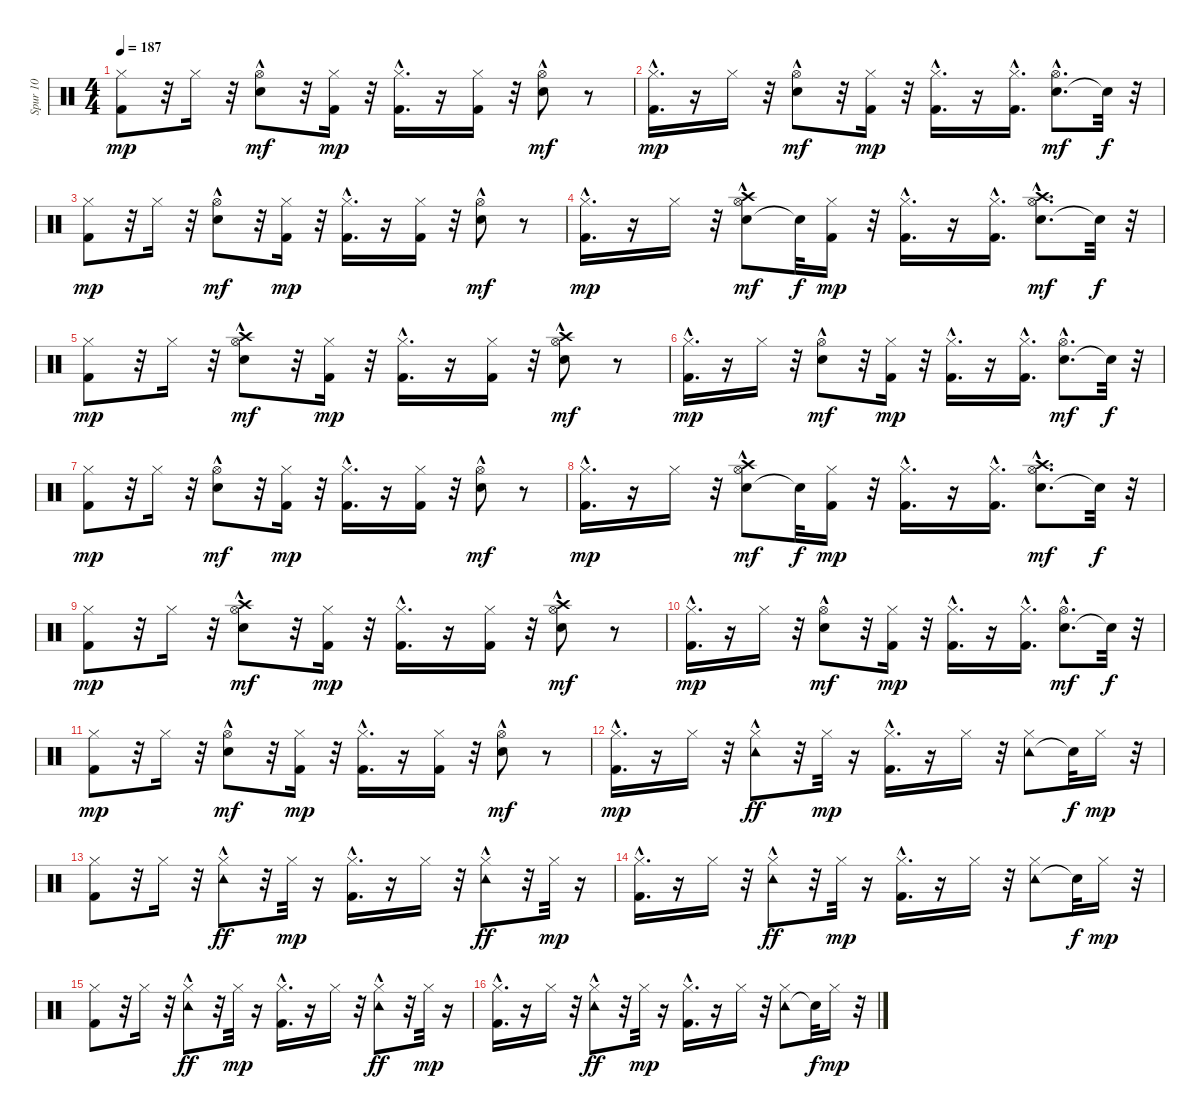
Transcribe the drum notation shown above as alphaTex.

\track ("Spur 10" "Spur 10") {instrument percussion}
\staff {score}
\articulation defaults
\ts (4 4)
\tempo 187
\clef neutral
\ks c
("Kick (hit) 2" "Hi-Hat (closed)").8{dy mp} r.32 "Hi-Hat (closed)".16 r.32 ("Electric Snare (hit)"{hac} "Hi-Hat (open)").8{dy mf} r.32 ("Kick (hit) 2" "Hi-Hat (closed)").16{dy mp} r.32 ("Kick (hit) 2"{hac} "Hi-Hat (closed)").16{d} r.16 ("Kick (hit) 2" "Hi-Hat (closed)").16 r.32 ("Electric Snare (hit)"{hac} "Hi-Hat (open)").8{dy mf} r.8 |
("Kick (hit) 2"{hac} "Hi-Hat (closed)").16{d dy mp} r.16 "Hi-Hat (closed)".16 r.32 ("Electric Snare (hit)"{hac} "Hi-Hat (open)").8{dy mf} r.32 ("Kick (hit) 2" "Hi-Hat (closed)").16{dy mp} r.32 ("Kick (hit) 2"{hac} "Hi-Hat (closed)").16{d} r.16 ("Kick (hit) 2"{hac} "Hi-Hat (closed)").16{d} ("Electric Snare (hit)" "Hi-Hat (open)"{hac}).8{d dy mf} "Snare (hit)"{t}.32{dy f} r.32 |
("Kick (hit) 2" "Hi-Hat (closed)").8{dy mp} r.32 "Hi-Hat (closed)".16 r.32 ("Electric Snare (hit)"{hac} "Hi-Hat (open)").8{dy mf} r.32 ("Kick (hit) 2" "Hi-Hat (closed)").16{dy mp} r.32 ("Kick (hit) 2"{hac} "Hi-Hat (closed)").16{d} r.16 ("Kick (hit) 2" "Hi-Hat (closed)").16 r.32 ("Electric Snare (hit)"{hac} "Hi-Hat (open)").8{dy mf} r.8 |
("Kick (hit) 2"{hac} "Hi-Hat (closed)").16{d dy mp} r.16 "Hi-Hat (closed)".16 r.32 ("Electric Snare (hit)"{hac} "Hi-Hat (open)" "Crash high (hit)").8{dy mf} "Snare (hit)"{t}.32{dy f} ("Kick (hit) 2" "Hi-Hat (closed)").16{dy mp} r.32 ("Kick (hit) 2"{hac} "Hi-Hat (closed)").16{d} r.16 ("Kick (hit) 2"{hac} "Hi-Hat (closed)").16{d} ("Electric Snare (hit)" "Hi-Hat (open)"{hac} "Crash high (hit)").8{d dy mf} "Snare (hit)"{t}.32{dy f} r.32 |
("Kick (hit) 2" "Hi-Hat (closed)").8{dy mp} r.32 "Hi-Hat (closed)".16 r.32 ("Electric Snare (hit)"{hac} "Hi-Hat (open)" "Crash high (hit)").8{dy mf} r.32 ("Kick (hit) 2" "Hi-Hat (closed)").16{dy mp} r.32 ("Kick (hit) 2"{hac} "Hi-Hat (closed)").16{d} r.16 ("Kick (hit) 2" "Hi-Hat (closed)").16 r.32 ("Electric Snare (hit)"{hac} "Hi-Hat (open)" "Crash high (hit)").8{dy mf} r.8 |
("Kick (hit) 2"{hac} "Hi-Hat (closed)").16{d dy mp} r.16 "Hi-Hat (closed)".16 r.32 ("Electric Snare (hit)"{hac} "Hi-Hat (open)").8{dy mf} r.32 ("Kick (hit) 2" "Hi-Hat (closed)").16{dy mp} r.32 ("Kick (hit) 2"{hac} "Hi-Hat (closed)").16{d} r.16 ("Kick (hit) 2"{hac} "Hi-Hat (closed)").16{d} ("Electric Snare (hit)" "Hi-Hat (open)"{hac}).8{d dy mf} "Snare (hit)"{t}.32{dy f} r.32 |
("Kick (hit) 2" "Hi-Hat (closed)").8{dy mp} r.32 "Hi-Hat (closed)".16 r.32 ("Electric Snare (hit)"{hac} "Hi-Hat (open)").8{dy mf} r.32 ("Kick (hit) 2" "Hi-Hat (closed)").16{dy mp} r.32 ("Kick (hit) 2"{hac} "Hi-Hat (closed)").16{d} r.16 ("Kick (hit) 2" "Hi-Hat (closed)").16 r.32 ("Electric Snare (hit)"{hac} "Hi-Hat (open)").8{dy mf} r.8 |
("Kick (hit) 2"{hac} "Hi-Hat (closed)").16{d dy mp} r.16 "Hi-Hat (closed)".16 r.32 ("Electric Snare (hit)"{hac} "Hi-Hat (open)" "Crash high (hit)").8{dy mf} "Snare (hit)"{t}.32{dy f} ("Kick (hit) 2" "Hi-Hat (closed)").16{dy mp} r.32 ("Kick (hit) 2"{hac} "Hi-Hat (closed)").16{d} r.16 ("Kick (hit) 2"{hac} "Hi-Hat (closed)").16{d} ("Electric Snare (hit)" "Hi-Hat (open)"{hac} "Crash high (hit)").8{d dy mf} "Snare (hit)"{t}.32{dy f} r.32 |
("Kick (hit) 2" "Hi-Hat (closed)").8{dy mp} r.32 "Hi-Hat (closed)".16 r.32 ("Electric Snare (hit)"{hac} "Hi-Hat (open)" "Crash high (hit)"{hac}).8{dy mf} r.32 ("Kick (hit) 2" "Hi-Hat (closed)").16{dy mp} r.32 ("Kick (hit) 2"{hac} "Hi-Hat (closed)").16{d} r.16 ("Kick (hit) 2" "Hi-Hat (closed)").16 r.32 ("Electric Snare (hit)"{hac} "Hi-Hat (open)" "Crash high (hit)"{hac}).8{dy mf} r.8 |
("Kick (hit) 2"{hac} "Hi-Hat (closed)").16{d dy mp} r.16 "Hi-Hat (closed)".16 r.32 ("Electric Snare (hit)"{hac} "Hi-Hat (open)").8{dy mf} r.32 ("Kick (hit) 2" "Hi-Hat (closed)").16{dy mp} r.32 ("Kick (hit) 2"{hac} "Hi-Hat (closed)").16{d} r.16 ("Kick (hit) 2"{hac} "Hi-Hat (closed)").16{d} ("Electric Snare (hit)" "Hi-Hat (open)"{hac}).8{d dy mf} "Snare (hit)"{t}.32{dy f} r.32 |
("Kick (hit) 2" "Hi-Hat (closed)").8{dy mp} r.32 "Hi-Hat (closed)".16 r.32 ("Electric Snare (hit)"{hac} "Hi-Hat (open)").8{dy mf} r.32 ("Kick (hit) 2" "Hi-Hat (closed)").16{dy mp} r.32 ("Kick (hit) 2"{hac} "Hi-Hat (closed)").16{d} r.16 ("Kick (hit) 2" "Hi-Hat (closed)").16 r.32 ("Electric Snare (hit)"{hac} "Hi-Hat (open)").8{dy mf} r.8 |
("Kick (hit) 2"{hac} "Hi-Hat (closed)").16{d dy mp} r.16 "Hi-Hat (closed)".16 r.32 ("Hi-Hat (closed)" "Tambourine (hit)"{hac}).8{dy ff} r.32 "Hi-Hat (closed)".32{dy mp} r.16 ("Kick (hit) 2"{hac} "Hi-Hat (closed)").16{d} r.16 "Hi-Hat (closed)".16 r.32 ("Tambourine (hit)" "Hi-Hat (closed)").8 "Snare (hit)"{t}.32{dy f} "Hi-Hat (closed)".16{dy mp} r.32 |
("Hi-Hat (closed)" "Kick (hit) 2").8 r.32 "Hi-Hat (closed)".16 r.32 ("Hi-Hat (closed)" "Tambourine (hit)"{hac}).8{dy ff} r.32 "Hi-Hat (closed)".32{dy mp} r.16 ("Hi-Hat (closed)" "Kick (hit) 2"{hac}).16{d} r.16 "Hi-Hat (closed)".16 r.32 ("Hi-Hat (closed)" "Tambourine (hit)"{hac}).8{dy ff} r.32 "Hi-Hat (closed)".32{dy mp} r.16 |
("Kick (hit) 2"{hac} "Hi-Hat (closed)").16{d} r.16 "Hi-Hat (closed)".16 r.32 ("Hi-Hat (closed)" "Tambourine (hit)"{hac}).8{dy ff} r.32 "Hi-Hat (closed)".32{dy mp} r.16 ("Kick (hit) 2"{hac} "Hi-Hat (closed)").16{d} r.16 "Hi-Hat (closed)".16 r.32 ("Tambourine (hit)" "Hi-Hat (closed)").8 "Snare (hit)"{t}.32{dy f} "Hi-Hat (closed)".16{dy mp} r.32 |
("Hi-Hat (closed)" "Kick (hit) 2").8 r.32 "Hi-Hat (closed)".16 r.32 ("Hi-Hat (closed)" "Tambourine (hit)"{hac}).8{dy ff} r.32 "Hi-Hat (closed)".32{dy mp} r.16 ("Hi-Hat (closed)" "Kick (hit) 2"{hac}).16{d} r.16 "Hi-Hat (closed)".16 r.32 ("Hi-Hat (closed)" "Tambourine (hit)"{hac}).8{dy ff} r.32 "Hi-Hat (closed)".32{dy mp} r.16 |
("Kick (hit) 2"{hac} "Hi-Hat (closed)").16{d} r.16 "Hi-Hat (closed)".16 r.32 ("Hi-Hat (closed)" "Tambourine (hit)"{hac}).8{dy ff} r.32 "Hi-Hat (closed)".32{dy mp} r.16 ("Kick (hit) 2"{hac} "Hi-Hat (closed)").16{d} r.16 "Hi-Hat (closed)".16 r.32 ("Tambourine (hit)" "Hi-Hat (closed)").8 "Snare (hit)"{t}.32{dy f} "Hi-Hat (closed)".16{dy mp} r.32
